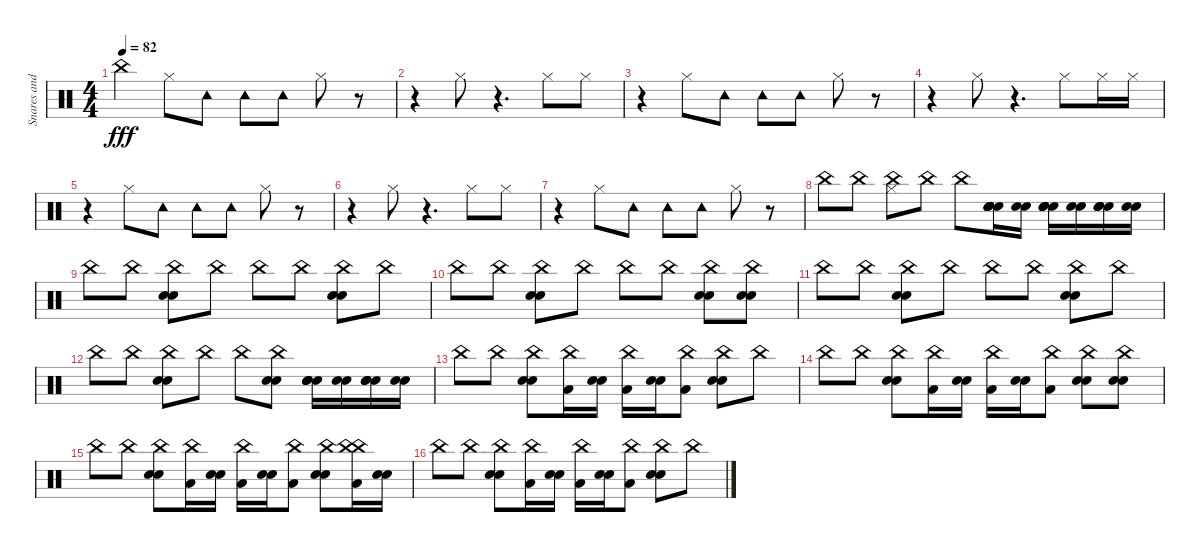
\track ("Snares and Cymbals" "Snares and") {instrument percussion}
\staff {score}
\articulation defaults
\ts (4 4)
\tempo 82
\clef neutral
\ks c "China (hit)".4{dy fff} "Hi-Hat (closed)".8 "Tambourine (hit)".8 "Tambourine (hit)".8 "Tambourine (hit)".8 "Hi-Hat (closed)".8
r.8 |
r.4 "Hi-Hat (closed)".8 r.4{d} "Hi-Hat (closed)".8 "Hi-Hat (closed)".8 |
r.4 "Hi-Hat (closed)".8 "Tambourine (hit)".8 "Tambourine (hit)".8 "Tambourine (hit)".8 "Hi-Hat (closed)".8 r.8 |
r.4 "Hi-Hat (closed)".8 r.4{d} "Hi-Hat (closed)".8 "Hi-Hat (closed)".16 "Hi-Hat (closed)".16 |
r.4 "Hi-Hat (closed)".8 "Tambourine (hit)".8 "Tambourine (hit)".8 "Tambourine (hit)".8 "Hi-Hat (closed)".8 r.8 |
r.4 "Hi-Hat (closed)".8 r.4{d} "Hi-Hat (closed)".8 "Hi-Hat (closed)".8 |
r.4 "Hi-Hat (closed)".8 "Tambourine (hit)".8 "Tambourine (hit)".8 "Tambourine (hit)".8 "Hi-Hat (closed)".8 r.8 |
"China (hit)".8 "China (hit)".8 ("Hi-Hat (closed)" "China (hit)").8 "China (hit)".8 "China (hit)".8 ("Snare (hit) 2" "Electric Snare (hit)" "Snare (hit) 2" "Electric Snare (hit)" "Electric Snare (hit)" "Snare (hit) 2").16 ("Electric Snare (hit)" "Snare (hit) 2").16 ("Snare (hit) 2" "Electric Snare (hit)" "Electric Snare (hit)" "Snare (hit) 2").16 ("Electric Snare (hit)" "Snare (hit) 2").16 ("Snare (hit) 2" "Electric Snare (hit)" "Electric Snare (hit)" "Snare (hit) 2").16 ("Electric Snare (hit)" "Snare (hit) 2").16 |
"China (hit)".8 "China (hit)".8 ("China (hit)" "Snare (hit) 2" "Electric Snare (hit)").8 "China (hit)".8 "China (hit)".8 "China (hit)".8 ("China (hit)" "Snare (hit) 2" "Electric Snare (hit)").8 "China (hit)".8 |
"China (hit)".8 "China (hit)".8 ("China (hit)" "Snare (hit) 2" "Electric Snare (hit)").8 "China (hit)".8 "China (hit)".8 "China (hit)".8 ("China (hit)" "Snare (hit) 2" "Electric Snare (hit)").8 ("Snare (hit) 2" "Electric Snare (hit)" "China (hit)").8 |
"China (hit)".8 "China (hit)".8 ("China (hit)" "Snare (hit) 2" "Electric Snare (hit)").8 "China (hit)".8 "China (hit)".8 "China (hit)".8 ("China (hit)" "Snare (hit) 2" "Electric Snare (hit)").8 "China (hit)".8 |
"China (hit)".8 "China (hit)".8 ("China (hit)" "Snare (hit) 2" "Electric Snare (hit)").8 "China (hit)".8 "China (hit)".8 ("Snare (hit) 2" "Electric Snare (hit)" "China (hit)").8 ("Snare (hit) 2" "Electric Snare (hit)" "Electric Snare (hit)" "Snare (hit) 2").16 ("Electric Snare (hit)" "Snare (hit) 2").16 ("Snare (hit) 2" "Electric Snare (hit)" "Electric Snare (hit)" "Snare (hit) 2").16 ("Electric Snare (hit)" "Snare (hit) 2").16 |
"China (hit)".8 "China (hit)".8 ("China (hit)" "Snare (hit) 2" "Electric Snare (hit)").8 ("China (hit)" "Low Tom (hit)").16 ("Snare (hit) 2" "Electric Snare (hit)").16 ("China (hit)" "Low Tom (hit)").16 ("Snare (hit) 2" "Electric Snare (hit)").16 ("China (hit)" "Low Tom (hit)").8 ("China (hit)" "Snare (hit) 2" "Electric Snare (hit)").8 "China (hit)".8 |
"China (hit)".8 "China (hit)".8 ("China (hit)" "Snare (hit) 2" "Electric Snare (hit)").8 ("China (hit)" "Low Tom (hit)").16 ("Snare (hit) 2" "Electric Snare (hit)").16 ("China (hit)" "Low Tom (hit)").16 ("Snare (hit) 2" "Electric Snare (hit)").16 ("China (hit)" "Low Tom (hit)").8 ("China (hit)" "Snare (hit) 2" "Electric Snare (hit)").8 ("China (hit)" "Electric Snare (hit)" "Snare (hit) 2").8 |
"China (hit)".8 "China (hit)".8 ("China (hit)" "Snare (hit) 2" "Electric Snare (hit)").8 ("China (hit)" "Low Tom (hit)").16 ("Snare (hit) 2" "Electric Snare (hit)").16 ("China (hit)" "Low Tom (hit)").16 ("Snare (hit) 2" "Electric Snare (hit)").16 ("China (hit)" "Low Tom (hit)").8 ("China (hit)" "Snare (hit) 2" "Electric Snare (hit)").8 ("China (hit)" "China (hit)" "Low Tom (hit)").16 ("Snare (hit) 2" "Electric Snare (hit)").16 |
"China (hit)".8 "China (hit)".8 ("China (hit)" "Snare (hit) 2" "Electric Snare (hit)").8 ("China (hit)" "Low Tom (hit)").16 ("Snare (hit) 2" "Electric Snare (hit)").16 ("China (hit)" "Low Tom (hit)").16 ("Snare (hit) 2" "Electric Snare (hit)").16 ("China (hit)" "Low Tom (hit)").8 ("China (hit)" "Snare (hit) 2" "Electric Snare (hit)").8 "China (hit)".8
